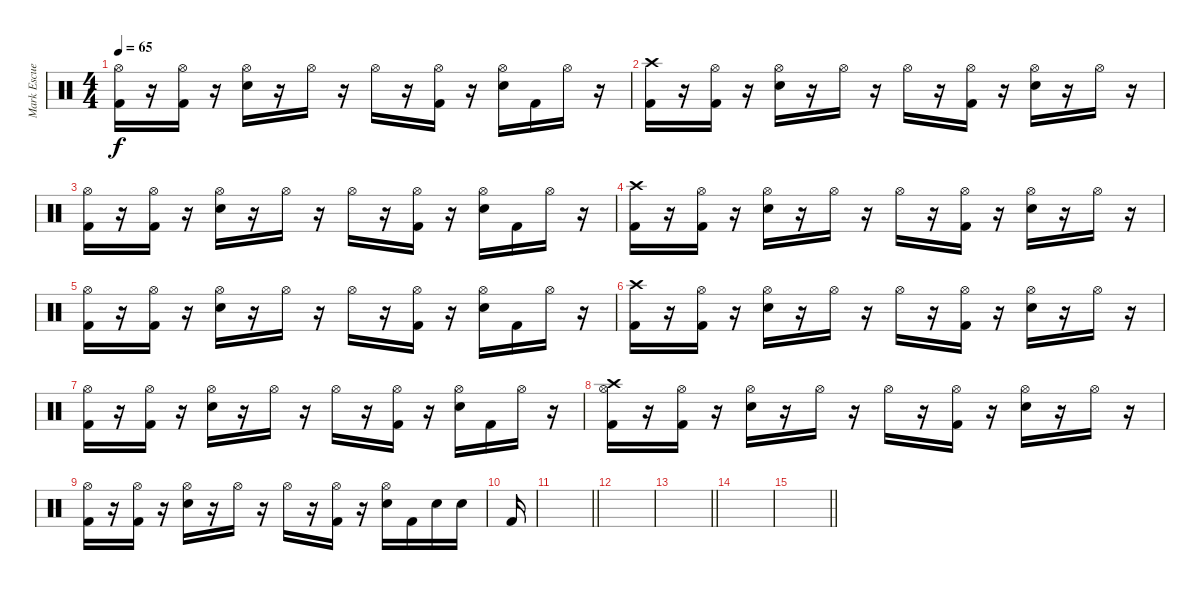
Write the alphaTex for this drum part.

\track ("Mark Escueta" "Mark Escue") {instrument percussion}
\staff {score}
\articulation defaults
\ts (4 4)
\tempo 65
\clef neutral
\ks c
("Hi-Hat (open)" "Kick (hit) 2").16{dy f} r.16 ("Hi-Hat (open)" "Kick (hit) 2").16 r.16 ("Hi-Hat (open)" "Electric Snare (hit)").16 r.16 "Hi-Hat (open)".16 r.16 "Hi-Hat (open)".16 r.16 ("Hi-Hat (open)" "Kick (hit) 2").16 r.16 ("Hi-Hat (open)" "Electric Snare (hit)").16 "Kick (hit) 2".16 "Hi-Hat (open)".16 r.16 |
("Crash high (hit)" "Kick (hit) 2").16 r.16 ("Hi-Hat (open)" "Kick (hit) 2").16 r.16 ("Hi-Hat (open)" "Electric Snare (hit)").16 r.16 "Hi-Hat (open)".16 r.16 "Hi-Hat (open)".16 r.16 ("Hi-Hat (open)" "Kick (hit) 2").16 r.16 ("Hi-Hat (open)" "Electric Snare (hit)").16 r.16 "Hi-Hat (open)".16 r.16 |
("Hi-Hat (open)" "Kick (hit) 2").16 r.16 ("Hi-Hat (open)" "Kick (hit) 2").16 r.16 ("Hi-Hat (open)" "Electric Snare (hit)").16 r.16 "Hi-Hat (open)".16 r.16 "Hi-Hat (open)".16 r.16 ("Hi-Hat (open)" "Kick (hit) 2").16 r.16 ("Hi-Hat (open)" "Electric Snare (hit)").16 "Kick (hit) 2".16 "Hi-Hat (open)".16 r.16 |
("Crash high (hit)" "Kick (hit) 2").16 r.16 ("Hi-Hat (open)" "Kick (hit) 2").16 r.16 ("Hi-Hat (open)" "Electric Snare (hit)").16 r.16 "Hi-Hat (open)".16 r.16 "Hi-Hat (open)".16 r.16 ("Hi-Hat (open)" "Kick (hit) 2").16 r.16 ("Hi-Hat (open)" "Electric Snare (hit)").16 r.16 "Hi-Hat (open)".16 r.16 |
("Hi-Hat (open)" "Kick (hit) 2").16 r.16 ("Hi-Hat (open)" "Kick (hit) 2").16 r.16 ("Hi-Hat (open)" "Electric Snare (hit)").16 r.16 "Hi-Hat (open)".16 r.16 "Hi-Hat (open)".16 r.16 ("Hi-Hat (open)" "Kick (hit) 2").16 r.16 ("Hi-Hat (open)" "Electric Snare (hit)").16 "Kick (hit) 2".16 "Hi-Hat (open)".16 r.16 |
("Crash high (hit)" "Kick (hit) 2").16 r.16 ("Hi-Hat (open)" "Kick (hit) 2").16 r.16 ("Hi-Hat (open)" "Electric Snare (hit)").16 r.16 "Hi-Hat (open)".16 r.16 "Hi-Hat (open)".16 r.16 ("Hi-Hat (open)" "Kick (hit) 2").16 r.16 ("Hi-Hat (open)" "Electric Snare (hit)").16 r.16 "Hi-Hat (open)".16 r.16 |
("Hi-Hat (open)" "Kick (hit) 2").16 r.16 ("Hi-Hat (open)" "Kick (hit) 2").16 r.16 ("Hi-Hat (open)" "Electric Snare (hit)").16 r.16 "Hi-Hat (open)".16 r.16 "Hi-Hat (open)".16 r.16 ("Hi-Hat (open)" "Kick (hit) 2").16 r.16 ("Hi-Hat (open)" "Electric Snare (hit)").16 "Kick (hit) 2".16 "Hi-Hat (open)".16 r.16 |
("Crash high (hit)" "Hi-Hat (open)" "Kick (hit) 2").16 r.16 ("Hi-Hat (open)" "Kick (hit) 2").16 r.16 ("Hi-Hat (open)" "Electric Snare (hit)").16 r.16 "Hi-Hat (open)".16 r.16 "Hi-Hat (open)".16 r.16 ("Hi-Hat (open)" "Kick (hit) 2").16 r.16 ("Hi-Hat (open)" "Electric Snare (hit)").16 r.16 "Hi-Hat (open)".16 r.16 |
("Hi-Hat (open)" "Kick (hit) 2").16 r.16 ("Hi-Hat (open)" "Kick (hit) 2").16 r.16 ("Hi-Hat (open)" "Electric Snare (hit)").16 r.16 "Hi-Hat (open)".16 r.16 "Hi-Hat (open)".16 r.16 ("Hi-Hat (open)" "Kick (hit) 2").16 r.16 ("Hi-Hat (open)" "Electric Snare (hit)").16 "Kick (hit) 2".16 "Electric Snare (hit)".16 "Electric Snare (hit)".16 |
"Kick (hit) 2".16 |
\barLineRight lightlight
|
|
\barLineRight lightlight
|
|
\barLineRight lightlight
